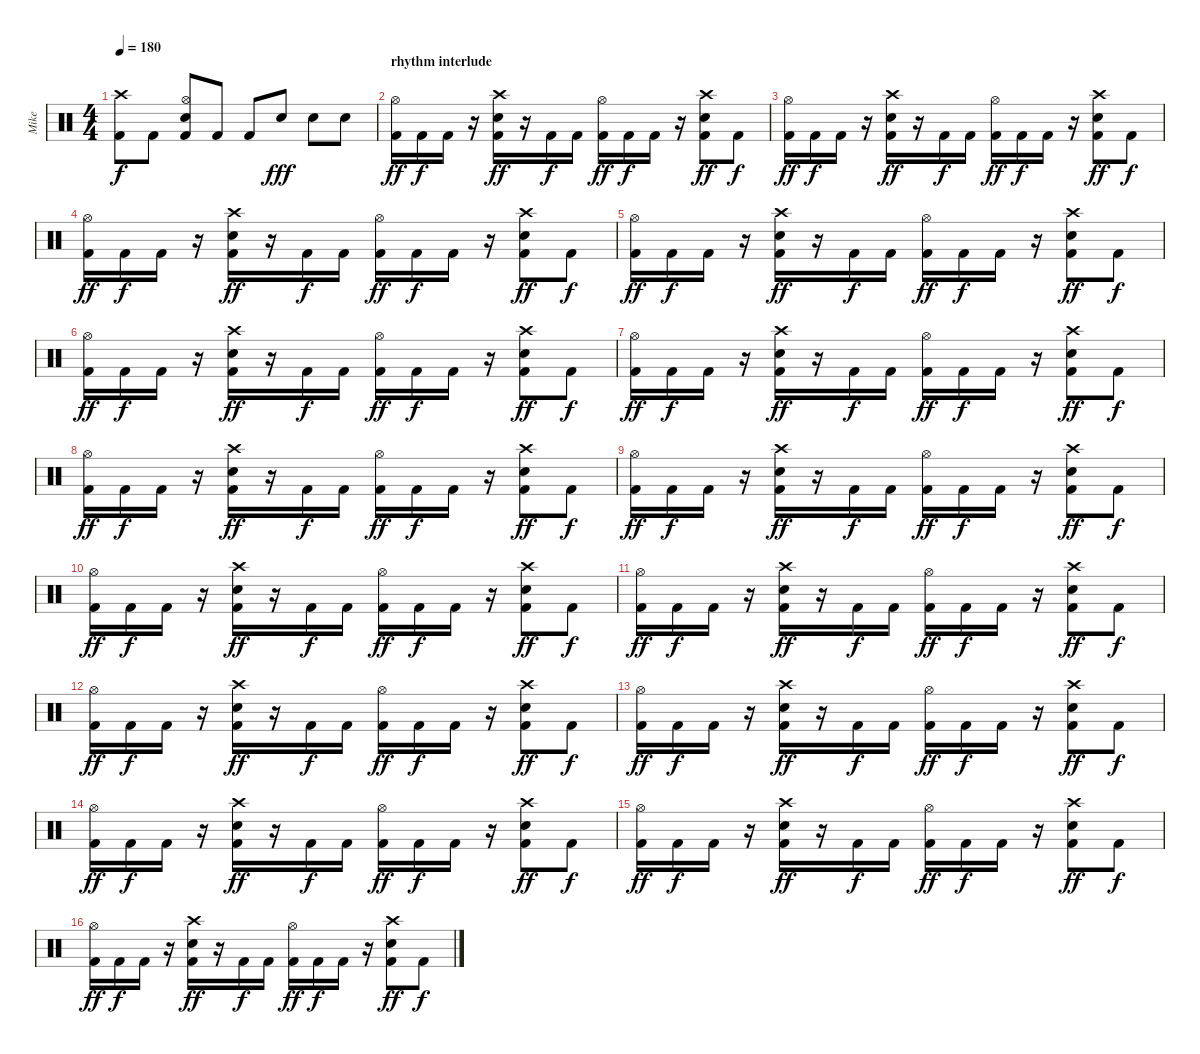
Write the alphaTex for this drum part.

\track ("Mike" "Mike") {instrument percussion}
\staff {score}
\articulation defaults
\ts (4 4)
\tempo 180
\clef neutral
\ks c
("Crash high (hit)" "Kick (hit) 2").8{dy f} "Kick (hit) 2".8 ("Hi-Hat (open)" "Snare (hit) 2" "Kick (hit) 2").8 "Kick (hit) 2".8 "Kick (hit) 2".8 "Snare (hit) 2".8{dy fff} "Snare (hit) 2".8 "Snare (hit) 2".8 |
\section ("" "rhythm interlude")
("Hi-Hat (open)" "Kick (hit) 2").16{dy ff} "Kick (hit) 2".16{dy f} "Kick (hit) 2".16 r.16 ("Crash high (hit)" "Snare (hit) 2" "Kick (hit) 2").16{dy ff} r.16 "Kick (hit) 2".16{dy f} "Kick (hit) 2".16 ("Hi-Hat (open)" "Kick (hit) 2").16{dy ff} "Kick (hit) 2".16{dy f} "Kick (hit) 2".16 r.16 ("Crash high (hit)" "Snare (hit) 2" "Kick (hit) 2").8{dy ff} "Kick (hit) 2".8{dy f} |
("Hi-Hat (open)" "Kick (hit) 2").16{dy ff} "Kick (hit) 2".16{dy f} "Kick (hit) 2".16 r.16 ("Crash high (hit)" "Snare (hit) 2" "Kick (hit) 2").16{dy ff} r.16 "Kick (hit) 2".16{dy f} "Kick (hit) 2".16 ("Hi-Hat (open)" "Kick (hit) 2").16{dy ff} "Kick (hit) 2".16{dy f} "Kick (hit) 2".16 r.16 ("Crash high (hit)" "Snare (hit) 2" "Kick (hit) 2").8{dy ff} "Kick (hit) 2".8{dy f} |
("Hi-Hat (open)" "Kick (hit) 2").16{dy ff} "Kick (hit) 2".16{dy f} "Kick (hit) 2".16 r.16 ("Crash high (hit)" "Snare (hit) 2" "Kick (hit) 2").16{dy ff} r.16 "Kick (hit) 2".16{dy f} "Kick (hit) 2".16 ("Hi-Hat (open)" "Kick (hit) 2").16{dy ff} "Kick (hit) 2".16{dy f} "Kick (hit) 2".16 r.16 ("Crash high (hit)" "Snare (hit) 2" "Kick (hit) 2").8{dy ff} "Kick (hit) 2".8{dy f} |
("Hi-Hat (open)" "Kick (hit) 2").16{dy ff} "Kick (hit) 2".16{dy f} "Kick (hit) 2".16 r.16 ("Crash high (hit)" "Snare (hit) 2" "Kick (hit) 2").16{dy ff} r.16 "Kick (hit) 2".16{dy f} "Kick (hit) 2".16 ("Hi-Hat (open)" "Kick (hit) 2").16{dy ff} "Kick (hit) 2".16{dy f} "Kick (hit) 2".16 r.16 ("Crash high (hit)" "Snare (hit) 2" "Kick (hit) 2").8{dy ff} "Kick (hit) 2".8{dy f} |
("Hi-Hat (open)" "Kick (hit) 2").16{dy ff} "Kick (hit) 2".16{dy f} "Kick (hit) 2".16 r.16 ("Crash high (hit)" "Snare (hit) 2" "Kick (hit) 2").16{dy ff} r.16 "Kick (hit) 2".16{dy f} "Kick (hit) 2".16 ("Hi-Hat (open)" "Kick (hit) 2").16{dy ff} "Kick (hit) 2".16{dy f} "Kick (hit) 2".16 r.16 ("Crash high (hit)" "Snare (hit) 2" "Kick (hit) 2").8{dy ff} "Kick (hit) 2".8{dy f} |
("Hi-Hat (open)" "Kick (hit) 2").16{dy ff} "Kick (hit) 2".16{dy f} "Kick (hit) 2".16 r.16 ("Crash high (hit)" "Snare (hit) 2" "Kick (hit) 2").16{dy ff} r.16 "Kick (hit) 2".16{dy f} "Kick (hit) 2".16 ("Hi-Hat (open)" "Kick (hit) 2").16{dy ff} "Kick (hit) 2".16{dy f} "Kick (hit) 2".16 r.16 ("Crash high (hit)" "Snare (hit) 2" "Kick (hit) 2").8{dy ff} "Kick (hit) 2".8{dy f} |
("Hi-Hat (open)" "Kick (hit) 2").16{dy ff} "Kick (hit) 2".16{dy f} "Kick (hit) 2".16 r.16 ("Crash high (hit)" "Snare (hit) 2" "Kick (hit) 2").16{dy ff} r.16 "Kick (hit) 2".16{dy f} "Kick (hit) 2".16 ("Hi-Hat (open)" "Kick (hit) 2").16{dy ff} "Kick (hit) 2".16{dy f} "Kick (hit) 2".16 r.16 ("Crash high (hit)" "Snare (hit) 2" "Kick (hit) 2").8{dy ff} "Kick (hit) 2".8{dy f} |
("Hi-Hat (open)" "Kick (hit) 2").16{dy ff} "Kick (hit) 2".16{dy f} "Kick (hit) 2".16 r.16 ("Crash high (hit)" "Snare (hit) 2" "Kick (hit) 2").16{dy ff} r.16 "Kick (hit) 2".16{dy f} "Kick (hit) 2".16 ("Hi-Hat (open)" "Kick (hit) 2").16{dy ff} "Kick (hit) 2".16{dy f} "Kick (hit) 2".16 r.16 ("Crash high (hit)" "Snare (hit) 2" "Kick (hit) 2").8{dy ff} "Kick (hit) 2".8{dy f} |
("Hi-Hat (open)" "Kick (hit) 2").16{dy ff} "Kick (hit) 2".16{dy f} "Kick (hit) 2".16 r.16 ("Crash high (hit)" "Snare (hit) 2" "Kick (hit) 2").16{dy ff} r.16 "Kick (hit) 2".16{dy f} "Kick (hit) 2".16 ("Hi-Hat (open)" "Kick (hit) 2").16{dy ff} "Kick (hit) 2".16{dy f} "Kick (hit) 2".16 r.16 ("Crash high (hit)" "Snare (hit) 2" "Kick (hit) 2").8{dy ff} "Kick (hit) 2".8{dy f} |
("Hi-Hat (open)" "Kick (hit) 2").16{dy ff} "Kick (hit) 2".16{dy f} "Kick (hit) 2".16 r.16 ("Crash high (hit)" "Snare (hit) 2" "Kick (hit) 2").16{dy ff} r.16 "Kick (hit) 2".16{dy f} "Kick (hit) 2".16 ("Hi-Hat (open)" "Kick (hit) 2").16{dy ff} "Kick (hit) 2".16{dy f} "Kick (hit) 2".16 r.16 ("Crash high (hit)" "Snare (hit) 2" "Kick (hit) 2").8{dy ff} "Kick (hit) 2".8{dy f} |
("Hi-Hat (open)" "Kick (hit) 2").16{dy ff} "Kick (hit) 2".16{dy f} "Kick (hit) 2".16 r.16 ("Crash high (hit)" "Snare (hit) 2" "Kick (hit) 2").16{dy ff} r.16 "Kick (hit) 2".16{dy f} "Kick (hit) 2".16 ("Hi-Hat (open)" "Kick (hit) 2").16{dy ff} "Kick (hit) 2".16{dy f} "Kick (hit) 2".16 r.16 ("Crash high (hit)" "Snare (hit) 2" "Kick (hit) 2").8{dy ff} "Kick (hit) 2".8{dy f} |
("Hi-Hat (open)" "Kick (hit) 2").16{dy ff} "Kick (hit) 2".16{dy f} "Kick (hit) 2".16 r.16 ("Crash high (hit)" "Snare (hit) 2" "Kick (hit) 2").16{dy ff} r.16 "Kick (hit) 2".16{dy f} "Kick (hit) 2".16 ("Hi-Hat (open)" "Kick (hit) 2").16{dy ff} "Kick (hit) 2".16{dy f} "Kick (hit) 2".16 r.16 ("Crash high (hit)" "Snare (hit) 2" "Kick (hit) 2").8{dy ff} "Kick (hit) 2".8{dy f} |
("Hi-Hat (open)" "Kick (hit) 2").16{dy ff} "Kick (hit) 2".16{dy f} "Kick (hit) 2".16 r.16 ("Crash high (hit)" "Snare (hit) 2" "Kick (hit) 2").16{dy ff} r.16 "Kick (hit) 2".16{dy f} "Kick (hit) 2".16 ("Hi-Hat (open)" "Kick (hit) 2").16{dy ff} "Kick (hit) 2".16{dy f} "Kick (hit) 2".16 r.16 ("Crash high (hit)" "Snare (hit) 2" "Kick (hit) 2").8{dy ff} "Kick (hit) 2".8{dy f} |
("Hi-Hat (open)" "Kick (hit) 2").16{dy ff} "Kick (hit) 2".16{dy f} "Kick (hit) 2".16 r.16 ("Crash high (hit)" "Snare (hit) 2" "Kick (hit) 2").16{dy ff} r.16 "Kick (hit) 2".16{dy f} "Kick (hit) 2".16 ("Hi-Hat (open)" "Kick (hit) 2").16{dy ff} "Kick (hit) 2".16{dy f} "Kick (hit) 2".16 r.16 ("Crash high (hit)" "Snare (hit) 2" "Kick (hit) 2").8{dy ff} "Kick (hit) 2".8{dy f} |
("Hi-Hat (open)" "Kick (hit) 2").16{dy ff} "Kick (hit) 2".16{dy f} "Kick (hit) 2".16 r.16 ("Crash high (hit)" "Snare (hit) 2" "Kick (hit) 2").16{dy ff} r.16 "Kick (hit) 2".16{dy f} "Kick (hit) 2".16 ("Hi-Hat (open)" "Kick (hit) 2").16{dy ff} "Kick (hit) 2".16{dy f} "Kick (hit) 2".16 r.16 ("Crash high (hit)" "Snare (hit) 2" "Kick (hit) 2").8{dy ff} "Kick (hit) 2".8{dy f}
